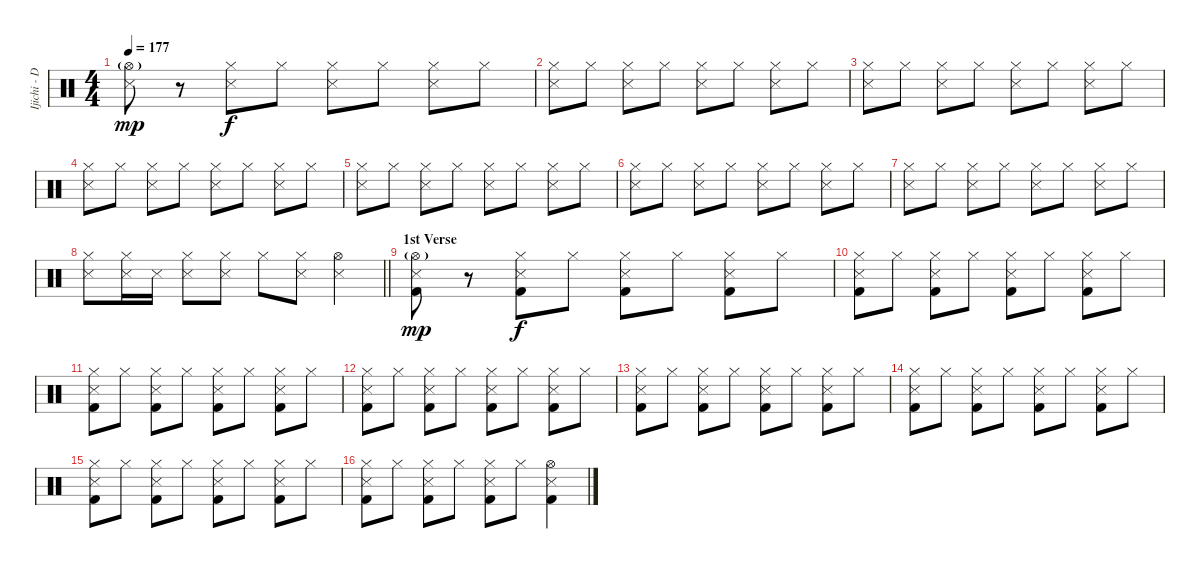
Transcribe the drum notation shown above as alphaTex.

\track ("Ijichi - Drums" "Ijichi - D") {instrument percussion}
\staff {score}
\articulation defaults
\ts (4 4)
\tempo 177
\clef neutral
\ks c
("Hi-Hat (open)"{g} "Snare (side stick) 3").8{dy mp} r.8 ("Hi-Hat (closed)" "Snare (side stick) 3").8{dy f} "Hi-Hat (closed)".8 ("Hi-Hat (closed)" "Snare (side stick) 3").8 "Hi-Hat (closed)".8 ("Hi-Hat (closed)" "Snare (side stick) 3").8 "Hi-Hat (closed)".8 |
("Hi-Hat (closed)" "Snare (side stick) 3").8 "Hi-Hat (closed)".8 ("Hi-Hat (closed)" "Snare (side stick) 3").8 "Hi-Hat (closed)".8 ("Hi-Hat (closed)" "Snare (side stick) 3").8 "Hi-Hat (closed)".8 ("Hi-Hat (closed)" "Snare (side stick) 3").8 "Hi-Hat (closed)".8 |
("Hi-Hat (closed)" "Snare (side stick) 3").8 "Hi-Hat (closed)".8 ("Hi-Hat (closed)" "Snare (side stick) 3").8 "Hi-Hat (closed)".8 ("Hi-Hat (closed)" "Snare (side stick) 3").8 "Hi-Hat (closed)".8 ("Hi-Hat (closed)" "Snare (side stick) 3").8 "Hi-Hat (closed)".8 |
("Hi-Hat (closed)" "Snare (side stick) 3").8 "Hi-Hat (closed)".8 ("Hi-Hat (closed)" "Snare (side stick) 3").8 "Hi-Hat (closed)".8 ("Hi-Hat (closed)" "Snare (side stick) 3").8 "Hi-Hat (closed)".8 ("Hi-Hat (closed)" "Snare (side stick) 3").8 "Hi-Hat (closed)".8 |
("Hi-Hat (closed)" "Snare (side stick) 3").8 "Hi-Hat (closed)".8 ("Hi-Hat (closed)" "Snare (side stick) 3").8 "Hi-Hat (closed)".8 ("Hi-Hat (closed)" "Snare (side stick) 3").8 "Hi-Hat (closed)".8 ("Hi-Hat (closed)" "Snare (side stick) 3").8 "Hi-Hat (closed)".8 |
("Hi-Hat (closed)" "Snare (side stick) 3").8 "Hi-Hat (closed)".8 ("Hi-Hat (closed)" "Snare (side stick) 3").8 "Hi-Hat (closed)".8 ("Hi-Hat (closed)" "Snare (side stick) 3").8 "Hi-Hat (closed)".8 ("Hi-Hat (closed)" "Snare (side stick) 3").8 "Hi-Hat (closed)".8 |
("Hi-Hat (closed)" "Snare (side stick) 3").8 "Hi-Hat (closed)".8 ("Hi-Hat (closed)" "Snare (side stick) 3").8 "Hi-Hat (closed)".8 ("Hi-Hat (closed)" "Snare (side stick) 3").8 "Hi-Hat (closed)".8 ("Hi-Hat (closed)" "Snare (side stick) 3").8 "Hi-Hat (closed)".8 |
\barLineRight lightlight
("Hi-Hat (closed)" "Snare (side stick) 3").8 ("Hi-Hat (closed)" "Snare (side stick) 3").16 "Snare (side stick) 3".16 ("Hi-Hat (closed)" "Snare (side stick) 3").8 ("Hi-Hat (closed)" "Snare (side stick) 3").8 "Hi-Hat (closed)".8 ("Hi-Hat (closed)" "Snare (side stick) 3").8 ("Hi-Hat (open)" "Snare (side stick) 3").4 |
\section ("" "1st Verse")
("Hi-Hat (open)"{g} "Snare (side stick) 3" "Kick (hit) 2").8{dy mp} r.8 ("Hi-Hat (closed)" "Snare (side stick) 3" "Kick (hit) 2").8{dy f} "Hi-Hat (closed)".8 ("Hi-Hat (closed)" "Snare (side stick) 3" "Kick (hit) 2").8 "Hi-Hat (closed)".8 ("Hi-Hat (closed)" "Snare (side stick) 3" "Kick (hit) 2").8 "Hi-Hat (closed)".8 |
("Hi-Hat (closed)" "Snare (side stick) 3" "Kick (hit) 2").8 "Hi-Hat (closed)".8 ("Hi-Hat (closed)" "Snare (side stick) 3" "Kick (hit) 2").8 "Hi-Hat (closed)".8 ("Hi-Hat (closed)" "Snare (side stick) 3" "Kick (hit) 2").8 "Hi-Hat (closed)".8 ("Hi-Hat (closed)" "Snare (side stick) 3" "Kick (hit) 2").8 "Hi-Hat (closed)".8 |
("Hi-Hat (closed)" "Snare (side stick) 3" "Kick (hit) 2").8 "Hi-Hat (closed)".8 ("Hi-Hat (closed)" "Snare (side stick) 3" "Kick (hit) 2").8 "Hi-Hat (closed)".8 ("Hi-Hat (closed)" "Snare (side stick) 3" "Kick (hit) 2").8 "Hi-Hat (closed)".8 ("Hi-Hat (closed)" "Snare (side stick) 3" "Kick (hit) 2").8 "Hi-Hat (closed)".8 |
("Hi-Hat (closed)" "Snare (side stick) 3" "Kick (hit) 2").8 "Hi-Hat (closed)".8 ("Hi-Hat (closed)" "Snare (side stick) 3" "Kick (hit) 2").8 "Hi-Hat (closed)".8 ("Hi-Hat (closed)" "Snare (side stick) 3" "Kick (hit) 2").8 "Hi-Hat (closed)".8 ("Hi-Hat (closed)" "Snare (side stick) 3" "Kick (hit) 2").8 "Hi-Hat (closed)".8 |
("Hi-Hat (closed)" "Snare (side stick) 3" "Kick (hit) 2").8 "Hi-Hat (closed)".8 ("Hi-Hat (closed)" "Snare (side stick) 3" "Kick (hit) 2").8 "Hi-Hat (closed)".8 ("Hi-Hat (closed)" "Snare (side stick) 3" "Kick (hit) 2").8 "Hi-Hat (closed)".8 ("Hi-Hat (closed)" "Snare (side stick) 3" "Kick (hit) 2").8 "Hi-Hat (closed)".8 |
("Hi-Hat (closed)" "Snare (side stick) 3" "Kick (hit) 2").8 "Hi-Hat (closed)".8 ("Hi-Hat (closed)" "Snare (side stick) 3" "Kick (hit) 2").8 "Hi-Hat (closed)".8 ("Hi-Hat (closed)" "Snare (side stick) 3" "Kick (hit) 2").8 "Hi-Hat (closed)".8 ("Hi-Hat (closed)" "Snare (side stick) 3" "Kick (hit) 2").8 "Hi-Hat (closed)".8 |
("Hi-Hat (closed)" "Snare (side stick) 3" "Kick (hit) 2").8 "Hi-Hat (closed)".8 ("Hi-Hat (closed)" "Snare (side stick) 3" "Kick (hit) 2").8 "Hi-Hat (closed)".8 ("Hi-Hat (closed)" "Snare (side stick) 3" "Kick (hit) 2").8 "Hi-Hat (closed)".8 ("Hi-Hat (closed)" "Snare (side stick) 3" "Kick (hit) 2").8 "Hi-Hat (closed)".8 |
("Hi-Hat (closed)" "Snare (side stick) 3" "Kick (hit) 2").8 "Hi-Hat (closed)".8 ("Hi-Hat (closed)" "Snare (side stick) 3" "Kick (hit) 2").8 "Hi-Hat (closed)".8 ("Hi-Hat (closed)" "Snare (side stick) 3" "Kick (hit) 2").8 "Hi-Hat (closed)".8 ("Hi-Hat (open)" "Snare (side stick) 3" "Kick (hit) 2").4
